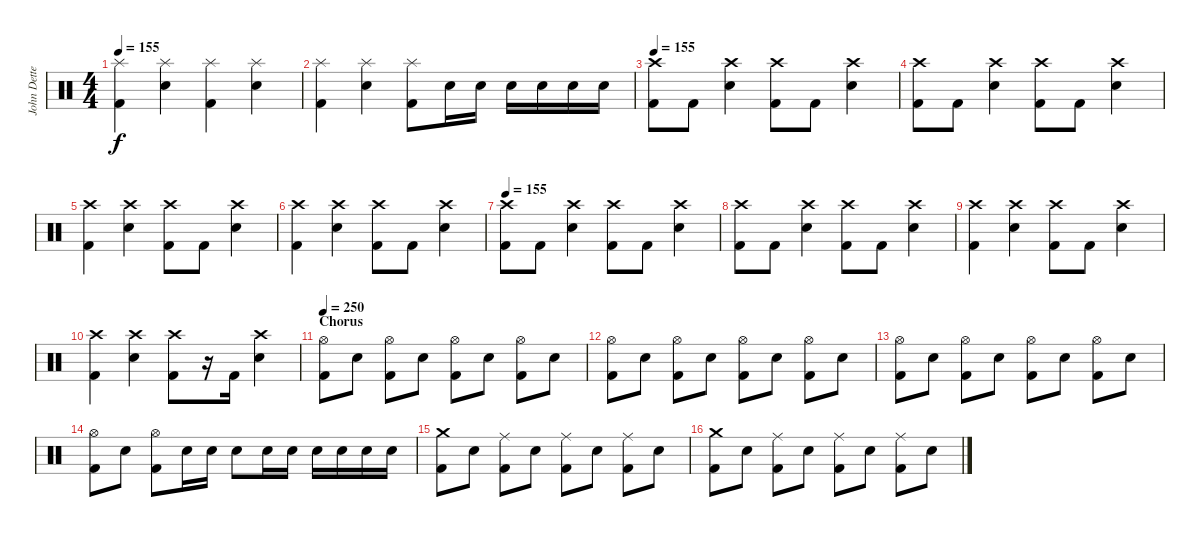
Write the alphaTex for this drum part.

\track ("John Dette" "John Dette") {instrument percussion}
\staff {score}
\articulation defaults
\ts (4 4)
\tempo 155
\clef neutral
\ks c
("Splash (hit)" "Kick (hit) 2").4{dy f} ("Splash (hit)" "Snare (hit) 2").4 ("Splash (hit)" "Kick (hit) 2").4 ("Splash (hit)" "Snare (hit) 2").4 |
("Splash (hit)" "Kick (hit) 2").4 ("Splash (hit)" "Snare (hit) 2").4 ("Splash (hit)" "Kick (hit) 2").8 "Snare (hit) 2".16 "Snare (hit) 2".16 "Snare (hit) 2".16 "Snare (hit) 2".16 "Snare (hit) 2".16 "Snare (hit) 2".16 |
\tempo 155
("Crash high (hit)" "Kick (hit) 2").8 "Kick (hit) 2".8 ("Crash high (hit)" "Snare (hit) 2").4 ("Crash high (hit)" "Kick (hit) 2").8 "Kick (hit) 2".8 ("Crash high (hit)" "Snare (hit) 2").4 |
("Crash high (hit)" "Kick (hit) 2").8 "Kick (hit) 2".8 ("Crash high (hit)" "Snare (hit) 2").4 ("Crash high (hit)" "Kick (hit) 2").8 "Kick (hit) 2".8 ("Crash high (hit)" "Snare (hit) 2").4 |
("Crash high (hit)" "Kick (hit) 2").4 ("Crash high (hit)" "Snare (hit) 2").4 ("Crash high (hit)" "Kick (hit) 2").8 "Kick (hit) 2".8 ("Crash high (hit)" "Snare (hit) 2").4 |
("Crash high (hit)" "Kick (hit) 2").4 ("Crash high (hit)" "Snare (hit) 2").4 ("Crash high (hit)" "Kick (hit) 2").8 "Kick (hit) 2".8 ("Crash high (hit)" "Snare (hit) 2").4 |
\tempo 155
("Crash high (hit)" "Kick (hit) 2").8 "Kick (hit) 2".8 ("Crash high (hit)" "Snare (hit) 2").4 ("Crash high (hit)" "Kick (hit) 2").8 "Kick (hit) 2".8 ("Crash high (hit)" "Snare (hit) 2").4 |
("Crash high (hit)" "Kick (hit) 2").8 "Kick (hit) 2".8 ("Crash high (hit)" "Snare (hit) 2").4 ("Crash high (hit)" "Kick (hit) 2").8 "Kick (hit) 2".8 ("Crash high (hit)" "Snare (hit) 2").4 |
("Crash high (hit)" "Kick (hit) 2").4 ("Crash high (hit)" "Snare (hit) 2").4 ("Crash high (hit)" "Kick (hit) 2").8 "Kick (hit) 2".8 ("Crash high (hit)" "Snare (hit) 2").4 |
("Crash high (hit)" "Kick (hit) 2").4 ("Crash high (hit)" "Snare (hit) 2").4 ("Crash high (hit)" "Kick (hit) 2").8 r.16 "Kick (hit) 2".16 ("Crash high (hit)" "Snare (hit) 2").4 |
\section ("" "Chorus")
\tempo 250
("Hi-Hat (open)" "Kick (hit) 2").8 "Snare (hit) 2".8 ("Hi-Hat (open)" "Kick (hit) 2").8 "Snare (hit) 2".8 ("Hi-Hat (open)" "Kick (hit) 2").8 "Snare (hit) 2".8 ("Hi-Hat (open)" "Kick (hit) 2").8 "Snare (hit) 2".8 |
("Hi-Hat (open)" "Kick (hit) 2").8 "Snare (hit) 2".8 ("Hi-Hat (open)" "Kick (hit) 2").8 "Snare (hit) 2".8 ("Hi-Hat (open)" "Kick (hit) 2").8 "Snare (hit) 2".8 ("Hi-Hat (open)" "Kick (hit) 2").8 "Snare (hit) 2".8 |
("Hi-Hat (open)" "Kick (hit) 2").8 "Snare (hit) 2".8 ("Hi-Hat (open)" "Kick (hit) 2").8 "Snare (hit) 2".8 ("Hi-Hat (open)" "Kick (hit) 2").8 "Snare (hit) 2".8 ("Hi-Hat (open)" "Kick (hit) 2").8 "Snare (hit) 2".8 |
("Hi-Hat (open)" "Kick (hit) 2").8 "Snare (hit) 2".8 ("Hi-Hat (open)" "Kick (hit) 2").8 "Snare (hit) 2".16 "Snare (hit) 2".16 "Snare (hit) 2".8 "Snare (hit) 2".16 "Snare (hit) 2".16 "Snare (hit) 2".16 "Snare (hit) 2".16 "Snare (hit) 2".16 "Snare (hit) 2".16 |
("Crash medium (hit)" "Kick (hit) 2").8 "Snare (hit) 2".8 ("Ride (middle)" "Kick (hit) 2").8 "Snare (hit) 2".8 ("Ride (middle)" "Kick (hit) 2").8 "Snare (hit) 2".8 ("Ride (middle)" "Kick (hit) 2").8 "Snare (hit) 2".8 |
("Crash medium (hit)" "Kick (hit) 2").8 "Snare (hit) 2".8 ("Ride (middle)" "Kick (hit) 2").8 "Snare (hit) 2".8 ("Ride (middle)" "Kick (hit) 2").8 "Snare (hit) 2".8 ("Ride (middle)" "Kick (hit) 2").8 "Snare (hit) 2".8
